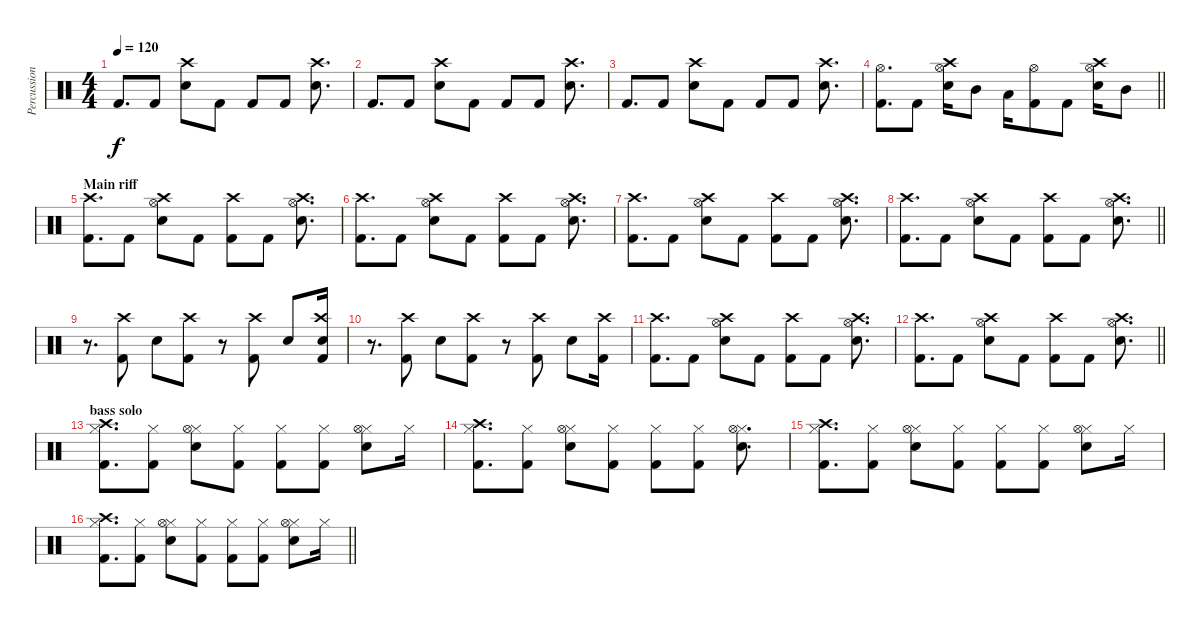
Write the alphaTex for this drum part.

\track ("Percussion" "Percussion") {instrument percussion}
\staff {score}
\articulation defaults
\ts (4 4)
\tempo 120
\clef neutral
\ks c "Kick (hit) 2".8{d dy f} "Kick (hit) 2".8
("Crash high (hit)" "Electric Snare (hit)").8 "Kick (hit) 2".8 "Kick (hit) 2".8 "Kick (hit) 2".8 ("Crash high (hit)" "Electric Snare (hit)").8{d} |
"Kick (hit) 2".8{d} "Kick (hit) 2".8 ("Crash high (hit)" "Electric Snare (hit)").8 "Kick (hit) 2".8 "Kick (hit) 2".8 "Kick (hit) 2".8 ("Crash high (hit)" "Electric Snare (hit)").8{d} |
"Kick (hit) 2".8{d} "Kick (hit) 2".8 ("Crash high (hit)" "Electric Snare (hit)").8 "Kick (hit) 2".8 "Kick (hit) 2".8 "Kick (hit) 2".8 ("Crash high (hit)" "Electric Snare (hit)").8{d} |
\barLineRight lightlight
("Hi-Hat (open)" "Kick (hit) 2").8{d} "Kick (hit) 2".8 ("Hi-Hat (open)" "Crash high (hit)" "Electric Snare (hit)").16 "Mid Tom (hit)".8 "Low Tom (hit)".16 ("Hi-Hat (open)" "Kick (hit) 2").8 "Kick (hit) 2".8 ("Hi-Hat (open)" "Crash high (hit)" "Electric Snare (hit)").16 "Mid Tom (hit)".8 |
\section ("" "Main riff")
("Crash high (hit)" "Kick (hit) 2").8{d} "Kick (hit) 2".8 ("Crash high (hit)" "Hi-Hat (open)" "Electric Snare (hit)").8 "Kick (hit) 2".8 ("Crash high (hit)" "Kick (hit) 2").8 "Kick (hit) 2".8 ("Crash high (hit)" "Hi-Hat (open)" "Electric Snare (hit)").8{d} |
("Crash high (hit)" "Kick (hit) 2").8{d} "Kick (hit) 2".8 ("Crash high (hit)" "Hi-Hat (open)" "Electric Snare (hit)").8 "Kick (hit) 2".8 ("Crash high (hit)" "Kick (hit) 2").8 "Kick (hit) 2".8 ("Crash high (hit)" "Hi-Hat (open)" "Electric Snare (hit)").8{d} |
("Crash high (hit)" "Kick (hit) 2").8{d} "Kick (hit) 2".8 ("Crash high (hit)" "Hi-Hat (open)" "Electric Snare (hit)").8 "Kick (hit) 2".8 ("Crash high (hit)" "Kick (hit) 2").8 "Kick (hit) 2".8 ("Crash high (hit)" "Hi-Hat (open)" "Electric Snare (hit)").8{d} |
\barLineRight lightlight
("Crash high (hit)" "Kick (hit) 2").8{d} "Kick (hit) 2".8 ("Crash high (hit)" "Hi-Hat (open)" "Electric Snare (hit)").8 "Kick (hit) 2".8 ("Crash high (hit)" "Kick (hit) 2").8 "Kick (hit) 2".8 ("Crash high (hit)" "Hi-Hat (open)" "Electric Snare (hit)").8{d} |
r.8{d} ("Crash high (hit)" "Kick (hit) 2").8 "Electric Snare (hit)".8 ("Crash high (hit)" "Kick (hit) 2").8 r.8 ("Crash high (hit)" "Kick (hit) 2").8 "Electric Snare (hit)".8 ("Crash high (hit)" "Electric Snare (hit)" "Kick (hit) 2").16 |
r.8{d} ("Crash high (hit)" "Kick (hit) 2").8 "Electric Snare (hit)".8 ("Crash high (hit)" "Kick (hit) 2").8 r.8 ("Crash high (hit)" "Kick (hit) 2").8 "Electric Snare (hit)".8 ("Crash high (hit)" "Kick (hit) 2").16 |
("Crash high (hit)" "Kick (hit) 2").8{d} "Kick (hit) 2".8 ("Crash high (hit)" "Hi-Hat (open)" "Electric Snare (hit)").8 "Kick (hit) 2".8 ("Crash high (hit)" "Kick (hit) 2").8 "Kick (hit) 2".8 ("Crash high (hit)" "Hi-Hat (open)" "Electric Snare (hit)").8{d} |
\barLineRight lightlight
("Crash high (hit)" "Kick (hit) 2").8{d} "Kick (hit) 2".8 ("Crash high (hit)" "Hi-Hat (open)" "Electric Snare (hit)").8 "Kick (hit) 2".8 ("Crash high (hit)" "Kick (hit) 2").8 "Kick (hit) 2".8 ("Crash high (hit)" "Hi-Hat (open)" "Electric Snare (hit)").8{d} |
\section ("" "bass solo")
("Hi-Hat (closed)" "Crash high (hit)" "Kick (hit) 2").8{d} ("Hi-Hat (closed)" "Kick (hit) 2").8 ("Hi-Hat (closed)" "Hi-Hat (open)" "Electric Snare (hit)").8 ("Hi-Hat (closed)" "Kick (hit) 2").8 ("Hi-Hat (closed)" "Kick (hit) 2").8 ("Hi-Hat (closed)" "Kick (hit) 2").8 ("Hi-Hat (closed)" "Hi-Hat (open)" "Electric Snare (hit)").8 "Hi-Hat (closed)".16 |
("Hi-Hat (closed)" "Crash high (hit)" "Kick (hit) 2").8{d} ("Hi-Hat (closed)" "Kick (hit) 2").8 ("Hi-Hat (closed)" "Hi-Hat (open)" "Electric Snare (hit)").8 ("Hi-Hat (closed)" "Kick (hit) 2").8 ("Hi-Hat (closed)" "Kick (hit) 2").8 ("Hi-Hat (closed)" "Kick (hit) 2").8 ("Hi-Hat (closed)" "Hi-Hat (open)" "Electric Snare (hit)").8{d} |
("Hi-Hat (closed)" "Crash high (hit)" "Kick (hit) 2").8{d} ("Hi-Hat (closed)" "Kick (hit) 2").8 ("Hi-Hat (closed)" "Hi-Hat (open)" "Electric Snare (hit)").8 ("Hi-Hat (closed)" "Kick (hit) 2").8 ("Hi-Hat (closed)" "Kick (hit) 2").8 ("Hi-Hat (closed)" "Kick (hit) 2").8 ("Hi-Hat (closed)" "Hi-Hat (open)" "Electric Snare (hit)").8 "Hi-Hat (closed)".16 |
\barLineRight lightlight
("Hi-Hat (closed)" "Crash high (hit)" "Kick (hit) 2").8{d} ("Hi-Hat (closed)" "Kick (hit) 2").8 ("Hi-Hat (closed)" "Hi-Hat (open)" "Electric Snare (hit)").8 ("Hi-Hat (closed)" "Kick (hit) 2").8 ("Hi-Hat (closed)" "Kick (hit) 2").8 ("Hi-Hat (closed)" "Kick (hit) 2").8 ("Hi-Hat (closed)" "Hi-Hat (open)" "Electric Snare (hit)").8 "Hi-Hat (closed)".16
